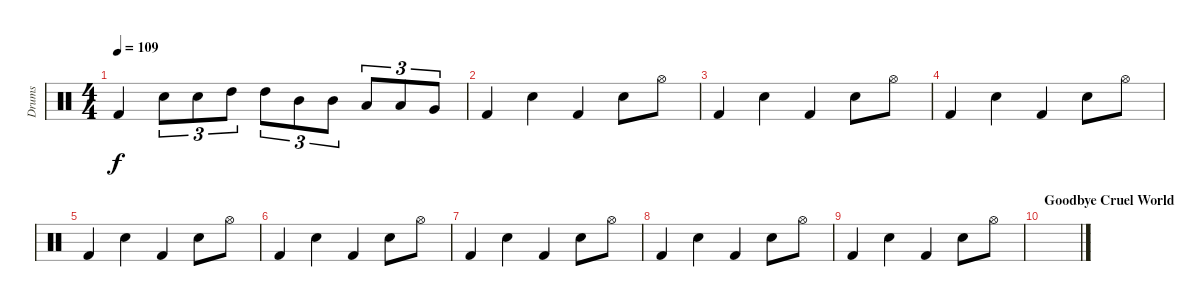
\track ("Drums" "Drums") {instrument percussion}
\staff {score}
\articulation defaults
\ts (4 4)
\tempo 109
\clef neutral
\ks c "Kick (hit) 2".4{dy f} "Snare (hit) 2".8{tu (3 2)} "Snare (hit) 2".8{tu (3 2)} "High Tom (hit)".8{tu (3 2)} "High Tom (hit)".8{tu (3 2)} "Mid Tom (hit)".8{tu (3 2)} "Mid Tom (hit)".8{tu (3 2)} "Low Tom (hit)".8{tu (3 2)} "Low Tom (hit)".8{tu (3 2)} "Very Low Tom (hit)".8{tu (3 2)}
|
"Kick (hit) 2".4 "Snare (hit) 2".4 "Kick (hit) 2".4 "Snare (hit) 2".8 "Hi-Hat (open)".8 |
"Kick (hit) 2".4 "Snare (hit) 2".4 "Kick (hit) 2".4 "Snare (hit) 2".8 "Hi-Hat (open)".8 |
"Kick (hit) 2".4 "Snare (hit) 2".4 "Kick (hit) 2".4 "Snare (hit) 2".8 "Hi-Hat (open)".8 |
"Kick (hit) 2".4 "Snare (hit) 2".4 "Kick (hit) 2".4 "Snare (hit) 2".8 "Hi-Hat (open)".8 |
"Kick (hit) 2".4 "Snare (hit) 2".4 "Kick (hit) 2".4 "Snare (hit) 2".8 "Hi-Hat (open)".8 |
"Kick (hit) 2".4 "Snare (hit) 2".4 "Kick (hit) 2".4 "Snare (hit) 2".8 "Hi-Hat (open)".8 |
"Kick (hit) 2".4 "Snare (hit) 2".4 "Kick (hit) 2".4 "Snare (hit) 2".8 "Hi-Hat (open)".8 |
"Kick (hit) 2".4 "Snare (hit) 2".4 "Kick (hit) 2".4 "Snare (hit) 2".8 "Hi-Hat (open)".8 |
\section ("" "Goodbye Cruel World")
